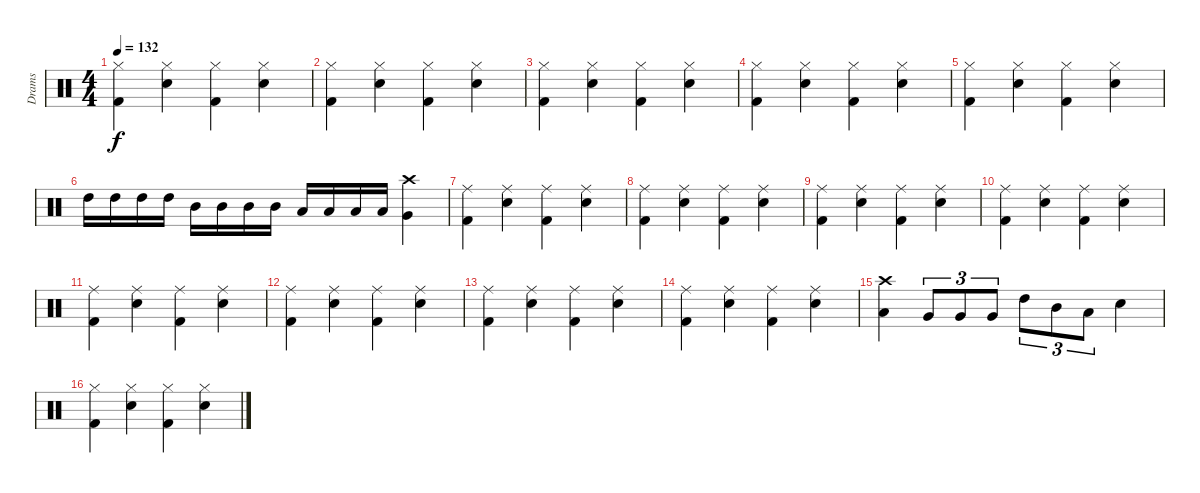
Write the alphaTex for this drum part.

\track ("Drams" "Drams") {instrument percussion}
\staff {score}
\articulation defaults
\ts (4 4)
\tempo 132
\clef neutral
\ks c
("Hi-Hat (closed)" "Kick (hit) 2").4{dy f} ("Hi-Hat (closed)" "Snare (hit) 2").4 ("Hi-Hat (closed)" "Kick (hit) 2").4 ("Hi-Hat (closed)" "Snare (hit) 2").4 |
("Hi-Hat (closed)" "Kick (hit) 2").4 ("Hi-Hat (closed)" "Snare (hit) 2").4 ("Hi-Hat (closed)" "Kick (hit) 2").4 ("Hi-Hat (closed)" "Snare (hit) 2").4 |
("Hi-Hat (closed)" "Kick (hit) 2").4 ("Hi-Hat (closed)" "Snare (hit) 2").4 ("Hi-Hat (closed)" "Kick (hit) 2").4 ("Hi-Hat (closed)" "Snare (hit) 2").4 |
("Hi-Hat (closed)" "Kick (hit) 2").4 ("Hi-Hat (closed)" "Snare (hit) 2").4 ("Hi-Hat (closed)" "Kick (hit) 2").4 ("Hi-Hat (closed)" "Snare (hit) 2").4 |
("Hi-Hat (closed)" "Kick (hit) 2").4 ("Hi-Hat (closed)" "Snare (hit) 2").4 ("Hi-Hat (closed)" "Kick (hit) 2").4 ("Hi-Hat (closed)" "Snare (hit) 2").4 |
"High Tom (hit)".16 "High Tom (hit)".16 "High Tom (hit)".16 "High Tom (hit)".16 "Mid Tom (hit)".16 "Mid Tom (hit)".16 "Mid Tom (hit)".16 "Mid Tom (hit)".16 "Low Tom (hit)".16 "Low Tom (hit)".16 "Low Tom (hit)".16 "Low Tom (hit)".16 ("Crash high (hit)" "Very Low Tom (hit)").4 |
("Ride (middle)" "Kick (hit) 2").4 ("Ride (middle)" "Snare (hit) 2").4 ("Ride (middle)" "Kick (hit) 2").4 ("Ride (middle)" "Snare (hit) 2").4 |
("Ride (middle)" "Kick (hit) 2").4 ("Ride (middle)" "Snare (hit) 2").4 ("Ride (middle)" "Kick (hit) 2").4 ("Ride (middle)" "Snare (hit) 2").4 |
("Ride (middle)" "Kick (hit) 2").4 ("Ride (middle)" "Snare (hit) 2").4 ("Ride (middle)" "Kick (hit) 2").4 ("Ride (middle)" "Snare (hit) 2").4 |
("Ride (middle)" "Kick (hit) 2").4 ("Ride (middle)" "Snare (hit) 2").4 ("Ride (middle)" "Kick (hit) 2").4 ("Ride (middle)" "Snare (hit) 2").4 |
("Ride (middle)" "Kick (hit) 2").4 ("Ride (middle)" "Snare (hit) 2").4 ("Ride (middle)" "Kick (hit) 2").4 ("Ride (middle)" "Snare (hit) 2").4 |
("Ride (middle)" "Kick (hit) 2").4 ("Ride (middle)" "Snare (hit) 2").4 ("Ride (middle)" "Kick (hit) 2").4 ("Ride (middle)" "Snare (hit) 2").4 |
("Ride (middle)" "Kick (hit) 2").4 ("Ride (middle)" "Snare (hit) 2").4 ("Ride (middle)" "Kick (hit) 2").4 ("Ride (middle)" "Snare (hit) 2").4 |
("Ride (middle)" "Kick (hit) 2").4 ("Ride (middle)" "Snare (hit) 2").4 ("Ride (middle)" "Kick (hit) 2").4 ("Ride (middle)" "Snare (hit) 2").4 |
("Crash high (hit)" "Low Floor Tom (hit)").4 "Very Low Tom (hit)".8{tu (3 2)} "Very Low Tom (hit)".8{tu (3 2)} "Very Low Tom (hit)".8{tu (3 2)} "High Tom (hit)".8{tu (3 2)} "Mid Tom (hit)".8{tu (3 2)} "Low Tom (hit)".8{tu (3 2)} "Snare (hit) 2".4 |
("Hi-Hat (closed)" "Kick (hit) 2").4 ("Hi-Hat (closed)" "Snare (hit) 2").4 ("Hi-Hat (closed)" "Kick (hit) 2").4 ("Hi-Hat (closed)" "Snare (hit) 2").4
